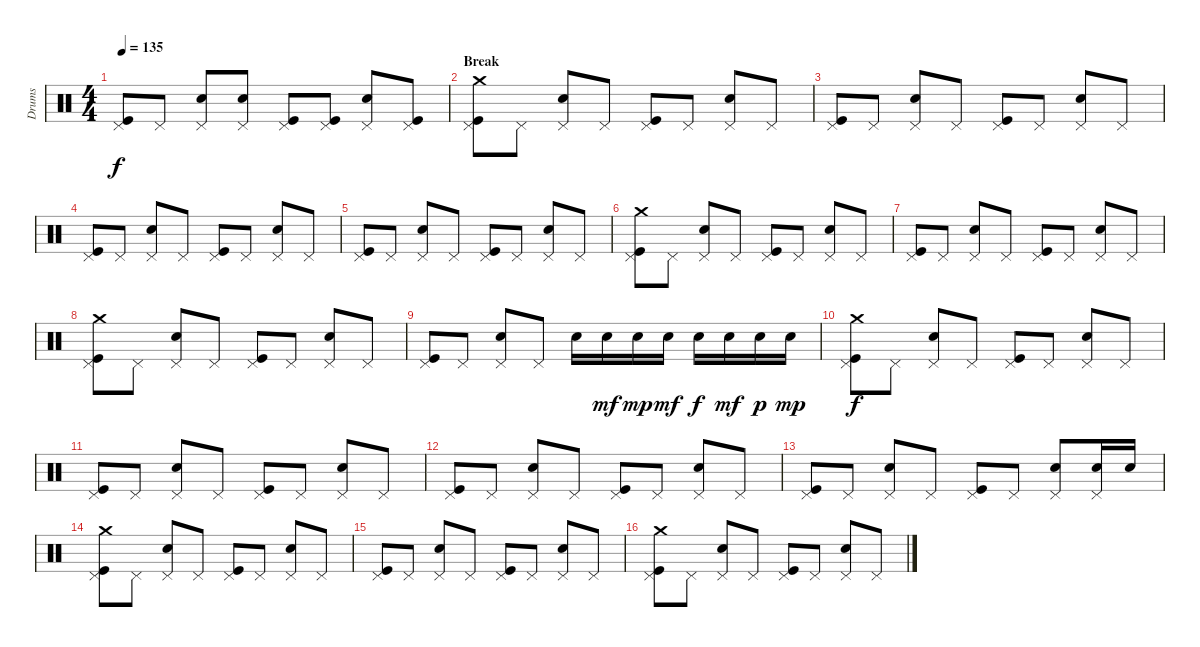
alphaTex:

\track ("Drums" "Drums") {instrument percussion}
\staff {score}
\articulation defaults
\ts (4 4)
\tempo 135
\clef neutral
\ks c
("Pedal Hi-Hat (hit)" "Kick (hit)").8{dy f} "Pedal Hi-Hat (hit)".8 ("Pedal Hi-Hat (hit)" "Electric Snare (hit)").8 ("Pedal Hi-Hat (hit)" "Electric Snare (hit)").8 ("Pedal Hi-Hat (hit)" "Kick (hit)").8 ("Pedal Hi-Hat (hit)" "Kick (hit)").8 ("Pedal Hi-Hat (hit)" "Electric Snare (hit)").8 ("Pedal Hi-Hat (hit)" "Kick (hit)").8 |
\section ("" "Break")
("Pedal Hi-Hat (hit)" "Kick (hit)" "Crash medium (hit)").8 "Pedal Hi-Hat (hit)".8 ("Pedal Hi-Hat (hit)" "Electric Snare (hit)").8 "Pedal Hi-Hat (hit)".8 ("Pedal Hi-Hat (hit)" "Kick (hit)").8 "Pedal Hi-Hat (hit)".8 ("Pedal Hi-Hat (hit)" "Electric Snare (hit)").8 "Pedal Hi-Hat (hit)".8 |
("Pedal Hi-Hat (hit)" "Kick (hit)").8 "Pedal Hi-Hat (hit)".8 ("Pedal Hi-Hat (hit)" "Electric Snare (hit)").8 "Pedal Hi-Hat (hit)".8 ("Pedal Hi-Hat (hit)" "Kick (hit)").8 "Pedal Hi-Hat (hit)".8 ("Pedal Hi-Hat (hit)" "Electric Snare (hit)").8 "Pedal Hi-Hat (hit)".8 |
("Pedal Hi-Hat (hit)" "Kick (hit)").8 "Pedal Hi-Hat (hit)".8 ("Pedal Hi-Hat (hit)" "Electric Snare (hit)").8 "Pedal Hi-Hat (hit)".8 ("Pedal Hi-Hat (hit)" "Kick (hit)").8 "Pedal Hi-Hat (hit)".8 ("Pedal Hi-Hat (hit)" "Electric Snare (hit)").8 "Pedal Hi-Hat (hit)".8 |
("Pedal Hi-Hat (hit)" "Kick (hit)").8 "Pedal Hi-Hat (hit)".8 ("Pedal Hi-Hat (hit)" "Electric Snare (hit)").8 "Pedal Hi-Hat (hit)".8 ("Pedal Hi-Hat (hit)" "Kick (hit)").8 "Pedal Hi-Hat (hit)".8 ("Pedal Hi-Hat (hit)" "Electric Snare (hit)").8 "Pedal Hi-Hat (hit)".8 |
("Pedal Hi-Hat (hit)" "Kick (hit)" "Crash medium (hit)").8 "Pedal Hi-Hat (hit)".8 ("Pedal Hi-Hat (hit)" "Electric Snare (hit)").8 "Pedal Hi-Hat (hit)".8 ("Pedal Hi-Hat (hit)" "Kick (hit)").8 "Pedal Hi-Hat (hit)".8 ("Pedal Hi-Hat (hit)" "Electric Snare (hit)").8 "Pedal Hi-Hat (hit)".8 |
("Pedal Hi-Hat (hit)" "Kick (hit)").8 "Pedal Hi-Hat (hit)".8 ("Pedal Hi-Hat (hit)" "Electric Snare (hit)").8 "Pedal Hi-Hat (hit)".8 ("Pedal Hi-Hat (hit)" "Kick (hit)").8 "Pedal Hi-Hat (hit)".8 ("Pedal Hi-Hat (hit)" "Electric Snare (hit)").8 "Pedal Hi-Hat (hit)".8 |
("Pedal Hi-Hat (hit)" "Kick (hit)" "Crash medium (hit)").8 "Pedal Hi-Hat (hit)".8 ("Pedal Hi-Hat (hit)" "Electric Snare (hit)").8 "Pedal Hi-Hat (hit)".8 ("Pedal Hi-Hat (hit)" "Kick (hit)").8 "Pedal Hi-Hat (hit)".8 ("Pedal Hi-Hat (hit)" "Electric Snare (hit)").8 "Pedal Hi-Hat (hit)".8 |
("Pedal Hi-Hat (hit)" "Kick (hit)").8 "Pedal Hi-Hat (hit)".8 ("Pedal Hi-Hat (hit)" "Electric Snare (hit)").8 "Pedal Hi-Hat (hit)".8 "Electric Snare (hit)".16 "Electric Snare (hit)".16{dy mf} "Electric Snare (hit)".16{dy mp} "Electric Snare (hit)".16{dy mf} "Electric Snare (hit)".16{dy f} "Electric Snare (hit)".16{dy mf} "Electric Snare (hit)".16{dy p} "Electric Snare (hit)".16{dy mp} |
("Pedal Hi-Hat (hit)" "Kick (hit)" "Crash medium (hit)").8{dy f} "Pedal Hi-Hat (hit)".8 ("Pedal Hi-Hat (hit)" "Electric Snare (hit)").8 "Pedal Hi-Hat (hit)".8 ("Pedal Hi-Hat (hit)" "Kick (hit)").8 "Pedal Hi-Hat (hit)".8 ("Pedal Hi-Hat (hit)" "Electric Snare (hit)").8 "Pedal Hi-Hat (hit)".8 |
("Pedal Hi-Hat (hit)" "Kick (hit)").8 "Pedal Hi-Hat (hit)".8 ("Pedal Hi-Hat (hit)" "Electric Snare (hit)").8 "Pedal Hi-Hat (hit)".8 ("Pedal Hi-Hat (hit)" "Kick (hit)").8 "Pedal Hi-Hat (hit)".8 ("Pedal Hi-Hat (hit)" "Electric Snare (hit)").8 "Pedal Hi-Hat (hit)".8 |
("Pedal Hi-Hat (hit)" "Kick (hit)").8 "Pedal Hi-Hat (hit)".8 ("Pedal Hi-Hat (hit)" "Electric Snare (hit)").8 "Pedal Hi-Hat (hit)".8 ("Pedal Hi-Hat (hit)" "Kick (hit)").8 "Pedal Hi-Hat (hit)".8 ("Pedal Hi-Hat (hit)" "Electric Snare (hit)").8 "Pedal Hi-Hat (hit)".8 |
("Pedal Hi-Hat (hit)" "Kick (hit)").8 "Pedal Hi-Hat (hit)".8 ("Pedal Hi-Hat (hit)" "Electric Snare (hit)").8 "Pedal Hi-Hat (hit)".8 ("Pedal Hi-Hat (hit)" "Kick (hit)").8 "Pedal Hi-Hat (hit)".8 ("Pedal Hi-Hat (hit)" "Electric Snare (hit)").8 ("Pedal Hi-Hat (hit)" "Electric Snare (hit)").16 "Electric Snare (hit)".16 |
("Pedal Hi-Hat (hit)" "Kick (hit)" "Crash medium (hit)").8 "Pedal Hi-Hat (hit)".8 ("Pedal Hi-Hat (hit)" "Electric Snare (hit)").8 "Pedal Hi-Hat (hit)".8 ("Pedal Hi-Hat (hit)" "Kick (hit)").8 "Pedal Hi-Hat (hit)".8 ("Pedal Hi-Hat (hit)" "Electric Snare (hit)").8 "Pedal Hi-Hat (hit)".8 |
("Pedal Hi-Hat (hit)" "Kick (hit)").8 "Pedal Hi-Hat (hit)".8 ("Pedal Hi-Hat (hit)" "Electric Snare (hit)").8 "Pedal Hi-Hat (hit)".8 ("Pedal Hi-Hat (hit)" "Kick (hit)").8 "Pedal Hi-Hat (hit)".8 ("Pedal Hi-Hat (hit)" "Electric Snare (hit)").8 "Pedal Hi-Hat (hit)".8 |
("Pedal Hi-Hat (hit)" "Kick (hit)" "Crash medium (hit)").8 "Pedal Hi-Hat (hit)".8 ("Pedal Hi-Hat (hit)" "Electric Snare (hit)").8 "Pedal Hi-Hat (hit)".8 ("Pedal Hi-Hat (hit)" "Kick (hit)").8 "Pedal Hi-Hat (hit)".8 ("Pedal Hi-Hat (hit)" "Electric Snare (hit)").8 "Pedal Hi-Hat (hit)".8
